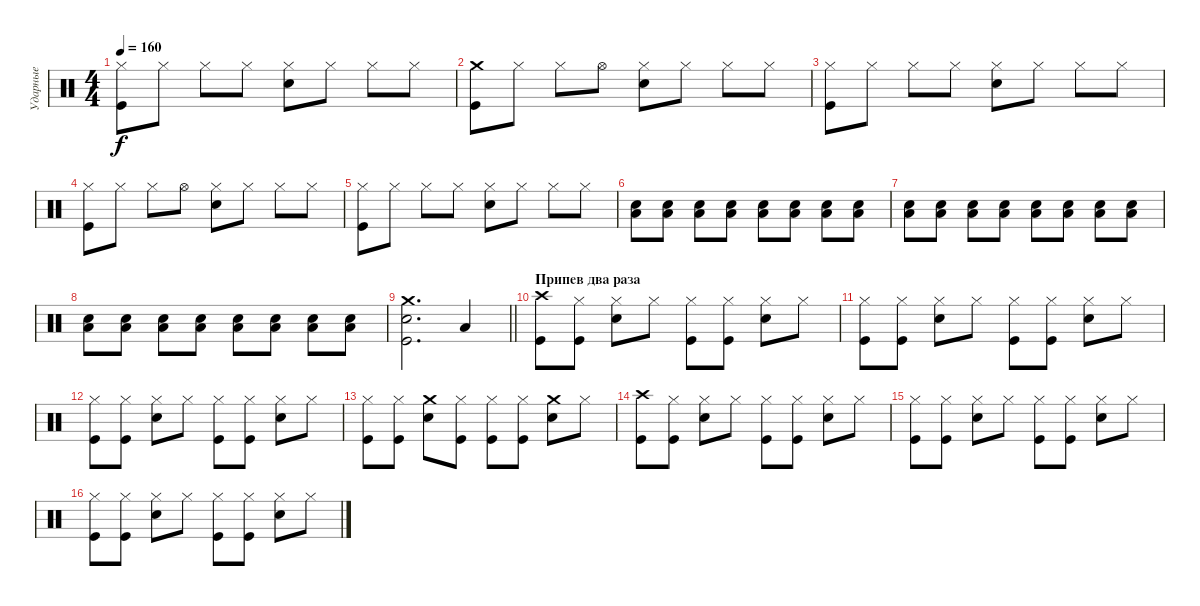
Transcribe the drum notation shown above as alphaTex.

\track ("Ударные" "Ударные") {instrument percussion}
\staff {score}
\articulation defaults
\ts (4 4)
\tempo 160
\clef neutral
\ks c
("Kick (hit)" "Hi-Hat (closed)").8{dy f} "Hi-Hat (closed)".8 "Hi-Hat (closed)".8 "Hi-Hat (closed)".8 ("Hi-Hat (closed)" "Snare (hit) 2").8 "Hi-Hat (closed)".8 "Hi-Hat (closed)".8 "Hi-Hat (closed)".8 |
("Kick (hit)" "Crash medium (hit)").8 "Hi-Hat (closed)".8 "Hi-Hat (closed)".8 "Hi-Hat (open)".8 ("Hi-Hat (closed)" "Snare (hit) 2").8 "Hi-Hat (closed)".8 "Hi-Hat (closed)".8 "Hi-Hat (closed)".8 |
("Kick (hit)" "Hi-Hat (closed)").8 "Hi-Hat (closed)".8 "Hi-Hat (closed)".8 "Hi-Hat (closed)".8 ("Hi-Hat (closed)" "Snare (hit) 2").8 "Hi-Hat (closed)".8 "Hi-Hat (closed)".8 "Hi-Hat (closed)".8 |
("Kick (hit)" "Hi-Hat (closed)").8 "Hi-Hat (closed)".8 "Hi-Hat (closed)".8 "Hi-Hat (open)".8 ("Hi-Hat (closed)" "Snare (hit) 2").8 "Hi-Hat (closed)".8 "Hi-Hat (closed)".8 "Hi-Hat (closed)".8 |
("Kick (hit)" "Hi-Hat (closed)").8 "Hi-Hat (closed)".8 "Hi-Hat (closed)".8 "Hi-Hat (closed)".8 ("Hi-Hat (closed)" "Snare (hit) 2").8 "Hi-Hat (closed)".8 "Hi-Hat (closed)".8 "Hi-Hat (closed)".8{volume 3} |
("Snare (hit) 2" "Low Floor Tom (hit)").8{volume 13} ("Snare (hit) 2" "Low Floor Tom (hit)").8 ("Snare (hit) 2" "Low Floor Tom (hit)").8 ("Snare (hit) 2" "Low Floor Tom (hit)").8 ("Snare (hit) 2" "Low Floor Tom (hit)").8 ("Snare (hit) 2" "Low Floor Tom (hit)").8 ("Snare (hit) 2" "Low Floor Tom (hit)").8 ("Snare (hit) 2" "Low Floor Tom (hit)").8 |
("Snare (hit) 2" "Low Floor Tom (hit)").8 ("Snare (hit) 2" "Low Floor Tom (hit)").8 ("Snare (hit) 2" "Low Floor Tom (hit)").8 ("Snare (hit) 2" "Low Floor Tom (hit)").8 ("Snare (hit) 2" "Low Floor Tom (hit)").8 ("Snare (hit) 2" "Low Floor Tom (hit)").8 ("Snare (hit) 2" "Low Floor Tom (hit)").8 ("Snare (hit) 2" "Low Floor Tom (hit)").8 |
("Snare (hit) 2" "Low Floor Tom (hit)").8 ("Snare (hit) 2" "Low Floor Tom (hit)").8 ("Snare (hit) 2" "Low Floor Tom (hit)").8 ("Snare (hit) 2" "Low Floor Tom (hit)").8 ("Snare (hit) 2" "Low Floor Tom (hit)").8 ("Snare (hit) 2" "Low Floor Tom (hit)").8 ("Snare (hit) 2" "Low Floor Tom (hit)").8 ("Snare (hit) 2" "Low Floor Tom (hit)").8 |
\barLineRight lightlight
("Kick (hit)" "Snare (hit) 2" "Crash medium (hit)").2{d} "Low Tom (hit)".4 |
\section ("" "Припев два раза")
("Crash high (hit)" "Kick (hit)").8 ("Hi-Hat (closed)" "Kick (hit)").8 ("Hi-Hat (closed)" "Snare (hit) 2").8 "Hi-Hat (closed)".8 ("Hi-Hat (closed)" "Kick (hit)").8 ("Hi-Hat (closed)" "Kick (hit)").8 ("Hi-Hat (closed)" "Snare (hit) 2").8 "Hi-Hat (closed)".8 |
("Hi-Hat (closed)" "Kick (hit)").8 ("Hi-Hat (closed)" "Kick (hit)").8 ("Hi-Hat (closed)" "Snare (hit) 2").8 "Hi-Hat (closed)".8 ("Hi-Hat (closed)" "Kick (hit)").8 ("Hi-Hat (closed)" "Kick (hit)").8 ("Hi-Hat (closed)" "Snare (hit) 2").8 "Hi-Hat (closed)".8 |
("Hi-Hat (closed)" "Kick (hit)").8 ("Hi-Hat (closed)" "Kick (hit)").8 ("Hi-Hat (closed)" "Snare (hit) 2").8 "Hi-Hat (closed)".8 ("Hi-Hat (closed)" "Kick (hit)").8 ("Hi-Hat (closed)" "Kick (hit)").8 ("Hi-Hat (closed)" "Snare (hit) 2").8 "Hi-Hat (closed)".8 |
("Hi-Hat (closed)" "Kick (hit)").8 ("Hi-Hat (closed)" "Kick (hit)").8 ("Crash medium (hit)" "Snare (hit) 2").8 ("Hi-Hat (closed)" "Kick (hit)").8 ("Hi-Hat (closed)" "Kick (hit)").8 ("Hi-Hat (closed)" "Kick (hit)").8 ("Crash medium (hit)" "Snare (hit) 2").8 "Hi-Hat (closed)".8 |
("Crash high (hit)" "Kick (hit)").8 ("Hi-Hat (closed)" "Kick (hit)").8 ("Hi-Hat (closed)" "Snare (hit) 2").8 "Hi-Hat (closed)".8 ("Hi-Hat (closed)" "Kick (hit)").8 ("Hi-Hat (closed)" "Kick (hit)").8 ("Hi-Hat (closed)" "Snare (hit) 2").8 "Hi-Hat (closed)".8 |
("Hi-Hat (closed)" "Kick (hit)").8 ("Hi-Hat (closed)" "Kick (hit)").8 ("Hi-Hat (closed)" "Snare (hit) 2").8 "Hi-Hat (closed)".8 ("Hi-Hat (closed)" "Kick (hit)").8 ("Hi-Hat (closed)" "Kick (hit)").8 ("Hi-Hat (closed)" "Snare (hit) 2").8 "Hi-Hat (closed)".8 |
("Hi-Hat (closed)" "Kick (hit)").8 ("Hi-Hat (closed)" "Kick (hit)").8 ("Hi-Hat (closed)" "Snare (hit) 2").8 "Hi-Hat (closed)".8 ("Hi-Hat (closed)" "Kick (hit)").8 ("Hi-Hat (closed)" "Kick (hit)").8 ("Hi-Hat (closed)" "Snare (hit) 2").8 "Hi-Hat (closed)".8
